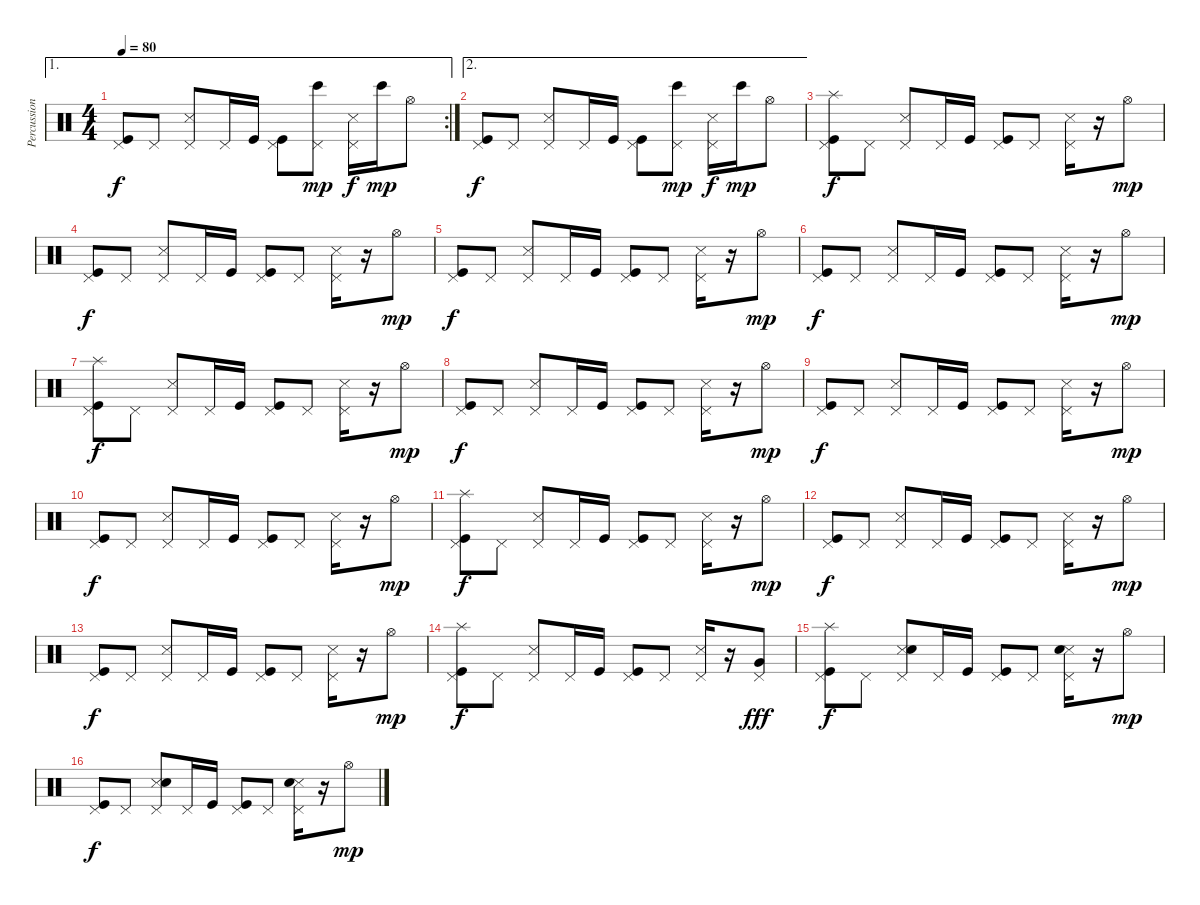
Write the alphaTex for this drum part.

\track ("Percussion" "Percussion") {instrument percussion}
\staff {score}
\articulation defaults
\ae 1
\rc 2
\ts (4 4)
\tempo 80
\clef neutral
\ks c
("Pedal Hi-Hat (hit)" "Kick (hit)").8{dy f} "Pedal Hi-Hat (hit)".8 ("Pedal Hi-Hat (hit)" "Metronome (hit)").8 "Pedal Hi-Hat (hit)".16 "Kick (hit)".16 ("Pedal Hi-Hat (hit)" "Kick (hit)").8 ("Pedal Hi-Hat (hit)" "Bongo High (hit)").8{dy mp} ("Pedal Hi-Hat (hit)" "Metronome (hit)").16{dy f} "Bongo High (hit)".16{dy mp} "Hi-Hat (open)".8 |
\ae 2
("Pedal Hi-Hat (hit)" "Kick (hit)").8{dy f} "Pedal Hi-Hat (hit)".8 ("Pedal Hi-Hat (hit)" "Metronome (hit)").8 "Pedal Hi-Hat (hit)".16 "Kick (hit)".16 ("Pedal Hi-Hat (hit)" "Kick (hit)").8 ("Pedal Hi-Hat (hit)" "Bongo High (hit)").8{dy mp} ("Pedal Hi-Hat (hit)" "Metronome (hit)").16{dy f} "Bongo High (hit)".16{dy mp} "Hi-Hat (open)".8 |
("Pedal Hi-Hat (hit)" "Kick (hit)" "Splash (hit)").8{dy f} "Pedal Hi-Hat (hit)".8 ("Pedal Hi-Hat (hit)" "Metronome (hit)").8 "Pedal Hi-Hat (hit)".16 "Kick (hit)".16 ("Pedal Hi-Hat (hit)" "Kick (hit)").8 "Pedal Hi-Hat (hit)".8 ("Pedal Hi-Hat (hit)" "Metronome (hit)").16 r.16 "Hi-Hat (open)".8{dy mp} |
("Pedal Hi-Hat (hit)" "Kick (hit)").8{dy f} "Pedal Hi-Hat (hit)".8 ("Pedal Hi-Hat (hit)" "Metronome (hit)").8 "Pedal Hi-Hat (hit)".16 "Kick (hit)".16 ("Pedal Hi-Hat (hit)" "Kick (hit)").8 "Pedal Hi-Hat (hit)".8 ("Pedal Hi-Hat (hit)" "Metronome (hit)").16 r.16 "Hi-Hat (open)".8{dy mp} |
("Pedal Hi-Hat (hit)" "Kick (hit)").8{dy f} "Pedal Hi-Hat (hit)".8 ("Pedal Hi-Hat (hit)" "Metronome (hit)").8 "Pedal Hi-Hat (hit)".16 "Kick (hit)".16 ("Pedal Hi-Hat (hit)" "Kick (hit)").8 "Pedal Hi-Hat (hit)".8 ("Pedal Hi-Hat (hit)" "Metronome (hit)").16 r.16 "Hi-Hat (open)".8{dy mp} |
("Pedal Hi-Hat (hit)" "Kick (hit)").8{dy f} "Pedal Hi-Hat (hit)".8 ("Pedal Hi-Hat (hit)" "Metronome (hit)").8 "Pedal Hi-Hat (hit)".16 "Kick (hit)".16 ("Pedal Hi-Hat (hit)" "Kick (hit)").8 "Pedal Hi-Hat (hit)".8 ("Pedal Hi-Hat (hit)" "Metronome (hit)").16 r.16 "Hi-Hat (open)".8{dy mp} |
("Pedal Hi-Hat (hit)" "Kick (hit)" "Splash (hit)").8{dy f} "Pedal Hi-Hat (hit)".8 ("Pedal Hi-Hat (hit)" "Metronome (hit)").8 "Pedal Hi-Hat (hit)".16 "Kick (hit)".16 ("Pedal Hi-Hat (hit)" "Kick (hit)").8 "Pedal Hi-Hat (hit)".8 ("Pedal Hi-Hat (hit)" "Metronome (hit)").16 r.16 "Hi-Hat (open)".8{dy mp} |
("Pedal Hi-Hat (hit)" "Kick (hit)").8{dy f} "Pedal Hi-Hat (hit)".8 ("Pedal Hi-Hat (hit)" "Metronome (hit)").8 "Pedal Hi-Hat (hit)".16 "Kick (hit)".16 ("Pedal Hi-Hat (hit)" "Kick (hit)").8 "Pedal Hi-Hat (hit)".8 ("Pedal Hi-Hat (hit)" "Metronome (hit)").16 r.16 "Hi-Hat (open)".8{dy mp} |
("Pedal Hi-Hat (hit)" "Kick (hit)").8{dy f} "Pedal Hi-Hat (hit)".8 ("Pedal Hi-Hat (hit)" "Metronome (hit)").8 "Pedal Hi-Hat (hit)".16 "Kick (hit)".16 ("Pedal Hi-Hat (hit)" "Kick (hit)").8 "Pedal Hi-Hat (hit)".8 ("Pedal Hi-Hat (hit)" "Metronome (hit)").16 r.16 "Hi-Hat (open)".8{dy mp} |
("Pedal Hi-Hat (hit)" "Kick (hit)").8{dy f} "Pedal Hi-Hat (hit)".8 ("Pedal Hi-Hat (hit)" "Metronome (hit)").8 "Pedal Hi-Hat (hit)".16 "Kick (hit)".16 ("Pedal Hi-Hat (hit)" "Kick (hit)").8 "Pedal Hi-Hat (hit)".8 ("Pedal Hi-Hat (hit)" "Metronome (hit)").16 r.16 "Hi-Hat (open)".8{dy mp} |
("Pedal Hi-Hat (hit)" "Kick (hit)" "Splash (hit)").8{dy f} "Pedal Hi-Hat (hit)".8 ("Pedal Hi-Hat (hit)" "Metronome (hit)").8 "Pedal Hi-Hat (hit)".16 "Kick (hit)".16 ("Pedal Hi-Hat (hit)" "Kick (hit)").8 "Pedal Hi-Hat (hit)".8 ("Pedal Hi-Hat (hit)" "Metronome (hit)").16 r.16 "Hi-Hat (open)".8{dy mp} |
("Pedal Hi-Hat (hit)" "Kick (hit)").8{dy f} "Pedal Hi-Hat (hit)".8 ("Pedal Hi-Hat (hit)" "Metronome (hit)").8 "Pedal Hi-Hat (hit)".16 "Kick (hit)".16 ("Pedal Hi-Hat (hit)" "Kick (hit)").8 "Pedal Hi-Hat (hit)".8 ("Pedal Hi-Hat (hit)" "Metronome (hit)").16 r.16 "Hi-Hat (open)".8{dy mp} |
("Pedal Hi-Hat (hit)" "Kick (hit)").8{dy f} "Pedal Hi-Hat (hit)".8 ("Pedal Hi-Hat (hit)" "Metronome (hit)").8 "Pedal Hi-Hat (hit)".16 "Kick (hit)".16 ("Pedal Hi-Hat (hit)" "Kick (hit)").8 "Pedal Hi-Hat (hit)".8 ("Pedal Hi-Hat (hit)" "Metronome (hit)").16 r.16 "Hi-Hat (open)".8{dy mp} |
("Pedal Hi-Hat (hit)" "Kick (hit)" "Splash (hit)").8{dy f} "Pedal Hi-Hat (hit)".8 ("Pedal Hi-Hat (hit)" "Metronome (hit)").8 "Pedal Hi-Hat (hit)".16 "Kick (hit)".16 ("Pedal Hi-Hat (hit)" "Kick (hit)").8 "Pedal Hi-Hat (hit)".8 ("Pedal Hi-Hat (hit)" "Metronome (hit)").16 r.16 ("Pedal Hi-Hat (hit)" "Very Low Tom (hit)").8{dy fff} |
("Pedal Hi-Hat (hit)" "Kick (hit)" "Splash (hit)").8{dy f} "Pedal Hi-Hat (hit)".8 ("Pedal Hi-Hat (hit)" "Metronome (hit)" "Electric Snare (hit)").8 "Pedal Hi-Hat (hit)".16 "Kick (hit)".16 ("Pedal Hi-Hat (hit)" "Kick (hit)").8 "Pedal Hi-Hat (hit)".8 ("Pedal Hi-Hat (hit)" "Metronome (hit)" "Electric Snare (hit)").16 r.16 "Hi-Hat (open)".8{dy mp} |
("Pedal Hi-Hat (hit)" "Kick (hit)").8{dy f} "Pedal Hi-Hat (hit)".8 ("Pedal Hi-Hat (hit)" "Metronome (hit)" "Electric Snare (hit)").8 "Pedal Hi-Hat (hit)".16 "Kick (hit)".16 ("Pedal Hi-Hat (hit)" "Kick (hit)").8 "Pedal Hi-Hat (hit)".8 ("Pedal Hi-Hat (hit)" "Metronome (hit)" "Electric Snare (hit)").16 r.16 "Hi-Hat (open)".8{dy mp}
